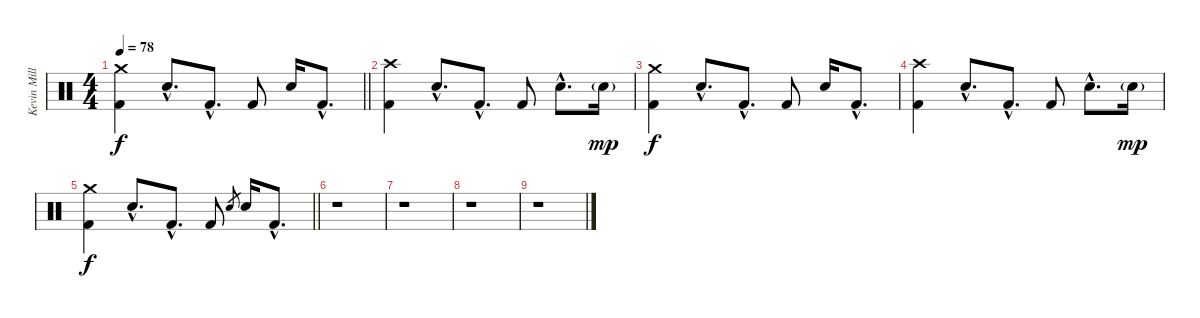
\track ("Kevin Miller (Drums)" "Kevin Mill") {instrument percussion}
\staff {score}
\articulation defaults
\ts (4 4)
\tempo 78
\clef neutral
\barLineRight lightlight
\ks c
("Crash medium (hit)" "Kick (hit) 2").4{dy f} "Electric Snare (hit)"{hac}.8{d} "Kick (hit) 2"{hac}.8{d} "Kick (hit) 2".8 "Electric Snare (hit)".16 "Kick (hit) 2"{hac}.8{d} |
("Crash high (hit)" "Kick (hit) 2").4 "Electric Snare (hit)"{hac}.8{d} "Kick (hit) 2"{hac}.8{d} "Kick (hit) 2".8 "Electric Snare (hit)"{hac}.8{d} "Electric Snare (hit)"{g}.16{dy mp} |
("Crash medium (hit)" "Kick (hit) 2").4{dy f} "Electric Snare (hit)"{hac}.8{d} "Kick (hit) 2"{hac}.8{d} "Kick (hit) 2".8 "Electric Snare (hit)".16 "Kick (hit) 2"{hac}.8{d} |
("Crash high (hit)" "Kick (hit) 2").4 "Electric Snare (hit)"{hac}.8{d} "Kick (hit) 2"{hac}.8{d} "Kick (hit) 2".8 "Electric Snare (hit)"{hac}.8{d} "Electric Snare (hit)"{g}.16{dy mp} |
\barLineRight lightlight
("Crash medium (hit)" "Kick (hit) 2").4{dy f} "Electric Snare (hit)"{hac}.8{d} "Kick (hit) 2"{hac}.8{d} "Kick (hit) 2".8 "Electric Snare (hit)".8{gr} "Electric Snare (hit)".16 "Kick (hit) 2"{hac}.8{d} |
r.1 |
r.1 |
r.1 |
r.1
